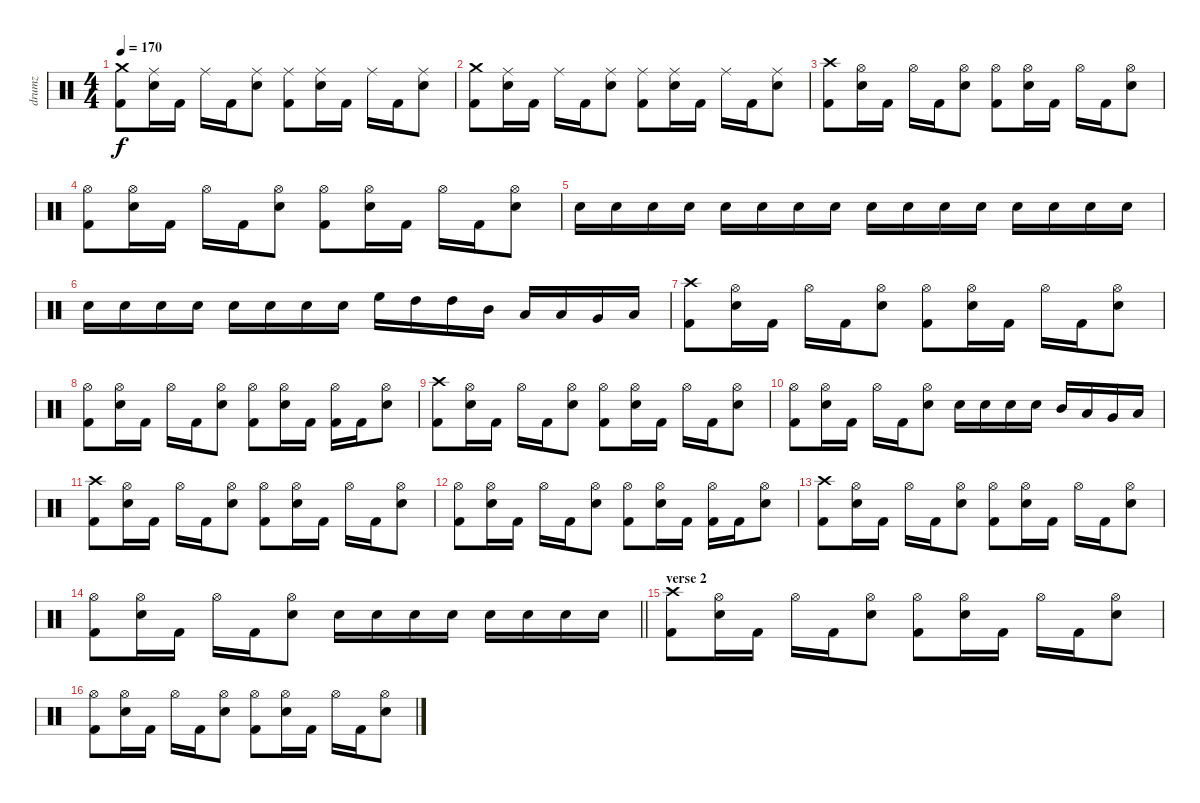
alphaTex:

\track ("drumz" "drumz") {instrument percussion}
\staff {score}
\articulation defaults
\ts (4 4)
\tempo 170
\clef neutral
\ks c
("Crash medium (hit)" "Kick (hit) 2").8{dy f} ("Ride (middle)" "Electric Snare (hit)").16 "Kick (hit) 2".16 "Ride (middle)".16 "Kick (hit) 2".16 ("Ride (middle)" "Electric Snare (hit)").8 ("Ride (middle)" "Kick (hit) 2").8 ("Ride (middle)" "Electric Snare (hit)").16 "Kick (hit) 2".16 "Ride (middle)".16 "Kick (hit) 2".16 ("Ride (middle)" "Electric Snare (hit)").8 |
("Crash medium (hit)" "Kick (hit) 2").8 ("Ride (middle)" "Electric Snare (hit)").16 "Kick (hit) 2".16 "Ride (middle)".16 "Kick (hit) 2".16 ("Ride (middle)" "Electric Snare (hit)").8 ("Ride (middle)" "Kick (hit) 2").8 ("Ride (middle)" "Electric Snare (hit)").16 "Kick (hit) 2".16 "Ride (middle)".16 "Kick (hit) 2".16 ("Ride (middle)" "Electric Snare (hit)").8 |
("Crash high (hit)" "Kick (hit) 2").8 ("Hi-Hat (open)" "Electric Snare (hit)").16 "Kick (hit) 2".16 "Hi-Hat (open)".16 "Kick (hit) 2".16 ("Hi-Hat (open)" "Electric Snare (hit)").8 ("Hi-Hat (open)" "Kick (hit) 2").8 ("Hi-Hat (open)" "Electric Snare (hit)").16 "Kick (hit) 2".16 "Hi-Hat (open)".16 "Kick (hit) 2".16 ("Hi-Hat (open)" "Electric Snare (hit)").8 |
("Hi-Hat (open)" "Kick (hit) 2").8 ("Hi-Hat (open)" "Electric Snare (hit)").16 "Kick (hit) 2".16 "Hi-Hat (open)".16 "Kick (hit) 2".16 ("Hi-Hat (open)" "Electric Snare (hit)").8 ("Hi-Hat (open)" "Kick (hit) 2").8 ("Hi-Hat (open)" "Electric Snare (hit)").16 "Kick (hit) 2".16 "Hi-Hat (open)".16 "Kick (hit) 2".16 ("Hi-Hat (open)" "Electric Snare (hit)").8 |
"Electric Snare (hit)".16 "Electric Snare (hit)".16 "Electric Snare (hit)".16 "Electric Snare (hit)".16 "Electric Snare (hit)".16 "Electric Snare (hit)".16 "Electric Snare (hit)".16 "Electric Snare (hit)".16 "Electric Snare (hit)".16 "Electric Snare (hit)".16 "Electric Snare (hit)".16 "Electric Snare (hit)".16 "Electric Snare (hit)".16 "Electric Snare (hit)".16 "Electric Snare (hit)".16 "Electric Snare (hit)".16 |
"Electric Snare (hit)".16 "Electric Snare (hit)".16 "Electric Snare (hit)".16 "Electric Snare (hit)".16 "Electric Snare (hit)".16 "Electric Snare (hit)".16 "Electric Snare (hit)".16 "Electric Snare (hit)".16 "High Floor Tom (hit)".16 "High Tom (hit)".16 "High Tom (hit)".16 "Mid Tom (hit)".16 "Low Tom (hit)".16 "Low Tom (hit)".16 "Very Low Tom (hit)".16 "Low Floor Tom (hit)".16 |
("Crash high (hit)" "Kick (hit) 2").8 ("Hi-Hat (open)" "Electric Snare (hit)").16 "Kick (hit) 2".16 "Hi-Hat (open)".16 "Kick (hit) 2".16 ("Hi-Hat (open)" "Electric Snare (hit)").8 ("Hi-Hat (open)" "Kick (hit) 2").8 ("Hi-Hat (open)" "Electric Snare (hit)").16 "Kick (hit) 2".16 "Hi-Hat (open)".16 "Kick (hit) 2".16 ("Hi-Hat (open)" "Electric Snare (hit)").8 |
("Hi-Hat (open)" "Kick (hit) 2").8 ("Hi-Hat (open)" "Electric Snare (hit)").16 "Kick (hit) 2".16 "Hi-Hat (open)".16 "Kick (hit) 2".16 ("Hi-Hat (open)" "Electric Snare (hit)").8 ("Hi-Hat (open)" "Kick (hit) 2").8 ("Hi-Hat (open)" "Electric Snare (hit)").16 "Kick (hit) 2".16 ("Hi-Hat (open)" "Kick (hit) 2").16 "Kick (hit) 2".16 ("Hi-Hat (open)" "Electric Snare (hit)").8 |
("Crash high (hit)" "Kick (hit) 2").8 ("Hi-Hat (open)" "Electric Snare (hit)").16 "Kick (hit) 2".16 "Hi-Hat (open)".16 "Kick (hit) 2".16 ("Hi-Hat (open)" "Electric Snare (hit)").8 ("Hi-Hat (open)" "Kick (hit) 2").8 ("Hi-Hat (open)" "Electric Snare (hit)").16 "Kick (hit) 2".16 "Hi-Hat (open)".16 "Kick (hit) 2".16 ("Hi-Hat (open)" "Electric Snare (hit)").8 |
("Hi-Hat (open)" "Kick (hit) 2").8 ("Hi-Hat (open)" "Electric Snare (hit)").16 "Kick (hit) 2".16 "Hi-Hat (open)".16 "Kick (hit) 2".16 ("Hi-Hat (open)" "Electric Snare (hit)").8 "Electric Snare (hit)".16 "Electric Snare (hit)".16 "Electric Snare (hit)".16 "Electric Snare (hit)".16 "Mid Tom (hit)".16 "Low Tom (hit)".16 "Very Low Tom (hit)".16 "Low Floor Tom (hit)".16 |
("Crash high (hit)" "Kick (hit) 2").8 ("Hi-Hat (open)" "Electric Snare (hit)").16 "Kick (hit) 2".16 "Hi-Hat (open)".16 "Kick (hit) 2".16 ("Hi-Hat (open)" "Electric Snare (hit)").8 ("Hi-Hat (open)" "Kick (hit) 2").8 ("Hi-Hat (open)" "Electric Snare (hit)").16 "Kick (hit) 2".16 "Hi-Hat (open)".16 "Kick (hit) 2".16 ("Hi-Hat (open)" "Electric Snare (hit)").8 |
("Hi-Hat (open)" "Kick (hit) 2").8 ("Hi-Hat (open)" "Electric Snare (hit)").16 "Kick (hit) 2".16 "Hi-Hat (open)".16 "Kick (hit) 2".16 ("Hi-Hat (open)" "Electric Snare (hit)").8 ("Hi-Hat (open)" "Kick (hit) 2").8 ("Hi-Hat (open)" "Electric Snare (hit)").16 "Kick (hit) 2".16 ("Hi-Hat (open)" "Kick (hit) 2").16 "Kick (hit) 2".16 ("Hi-Hat (open)" "Electric Snare (hit)").8 |
("Crash high (hit)" "Kick (hit) 2").8 ("Hi-Hat (open)" "Electric Snare (hit)").16 "Kick (hit) 2".16 "Hi-Hat (open)".16 "Kick (hit) 2".16 ("Hi-Hat (open)" "Electric Snare (hit)").8 ("Hi-Hat (open)" "Kick (hit) 2").8 ("Hi-Hat (open)" "Electric Snare (hit)").16 "Kick (hit) 2".16 "Hi-Hat (open)".16 "Kick (hit) 2".16 ("Hi-Hat (open)" "Electric Snare (hit)").8 |
\barLineRight lightlight
("Hi-Hat (open)" "Kick (hit) 2").8 ("Hi-Hat (open)" "Electric Snare (hit)").16 "Kick (hit) 2".16 "Hi-Hat (open)".16 "Kick (hit) 2".16 ("Hi-Hat (open)" "Electric Snare (hit)").8 "Electric Snare (hit)".16 "Electric Snare (hit)".16 "Electric Snare (hit)".16 "Electric Snare (hit)".16 "Electric Snare (hit)".16 "Electric Snare (hit)".16 "Electric Snare (hit)".16 "Electric Snare (hit)".16 |
\section ("" "verse 2")
("Crash high (hit)" "Kick (hit) 2").8 ("Hi-Hat (open)" "Electric Snare (hit)").16 "Kick (hit) 2".16 "Hi-Hat (open)".16 "Kick (hit) 2".16 ("Hi-Hat (open)" "Electric Snare (hit)").8 ("Hi-Hat (open)" "Kick (hit) 2").8 ("Hi-Hat (open)" "Electric Snare (hit)").16 "Kick (hit) 2".16 "Hi-Hat (open)".16 "Kick (hit) 2".16 ("Hi-Hat (open)" "Electric Snare (hit)").8 |
("Hi-Hat (open)" "Kick (hit) 2").8 ("Hi-Hat (open)" "Electric Snare (hit)").16 "Kick (hit) 2".16 "Hi-Hat (open)".16 "Kick (hit) 2".16 ("Hi-Hat (open)" "Electric Snare (hit)").8 ("Hi-Hat (open)" "Kick (hit) 2").8 ("Hi-Hat (open)" "Electric Snare (hit)").16 "Kick (hit) 2".16 "Hi-Hat (open)".16 "Kick (hit) 2".16 ("Hi-Hat (open)" "Electric Snare (hit)").8
